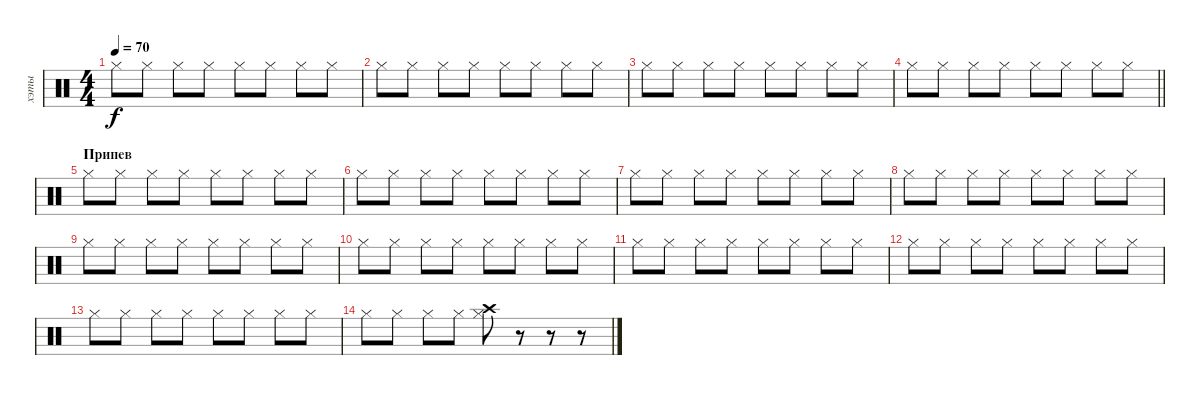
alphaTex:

\track ("хэты" "хэты") {instrument percussion}
\staff {score}
\articulation defaults
\ts (4 4)
\tempo 70
\clef neutral
\ks c "Hi-Hat (closed)".8{dy f} "Hi-Hat (closed)".8 "Hi-Hat (closed)".8 "Hi-Hat (closed)".8 "Hi-Hat (closed)".8 "Hi-Hat (closed)".8 "Hi-Hat (closed)".8 "Hi-Hat (closed)".8
|
"Hi-Hat (closed)".8 "Hi-Hat (closed)".8 "Hi-Hat (closed)".8 "Hi-Hat (closed)".8 "Hi-Hat (closed)".8 "Hi-Hat (closed)".8 "Hi-Hat (closed)".8 "Hi-Hat (closed)".8 |
"Hi-Hat (closed)".8 "Hi-Hat (closed)".8 "Hi-Hat (closed)".8 "Hi-Hat (closed)".8 "Hi-Hat (closed)".8 "Hi-Hat (closed)".8 "Hi-Hat (closed)".8 "Hi-Hat (closed)".8 |
\barLineRight lightlight "Hi-Hat (closed)".8 "Hi-Hat (closed)".8 "Hi-Hat (closed)".8 "Hi-Hat (closed)".8 "Hi-Hat (closed)".8 "Hi-Hat (closed)".8 "Hi-Hat (closed)".8 "Hi-Hat (closed)".8
|
\section ("" "Припев")
"Hi-Hat (closed)".8 "Hi-Hat (closed)".8 "Hi-Hat (closed)".8 "Hi-Hat (closed)".8 "Hi-Hat (closed)".8 "Hi-Hat (closed)".8 "Hi-Hat (closed)".8 "Hi-Hat (closed)".8 |
"Hi-Hat (closed)".8 "Hi-Hat (closed)".8 "Hi-Hat (closed)".8 "Hi-Hat (closed)".8 "Hi-Hat (closed)".8 "Hi-Hat (closed)".8 "Hi-Hat (closed)".8 "Hi-Hat (closed)".8 |
"Hi-Hat (closed)".8 "Hi-Hat (closed)".8 "Hi-Hat (closed)".8 "Hi-Hat (closed)".8 "Hi-Hat (closed)".8 "Hi-Hat (closed)".8 "Hi-Hat (closed)".8 "Hi-Hat (closed)".8 |
"Hi-Hat (closed)".8 "Hi-Hat (closed)".8 "Hi-Hat (closed)".8 "Hi-Hat (closed)".8 "Hi-Hat (closed)".8 "Hi-Hat (closed)".8 "Hi-Hat (closed)".8 "Hi-Hat (closed)".8 |
"Hi-Hat (closed)".8 "Hi-Hat (closed)".8 "Hi-Hat (closed)".8 "Hi-Hat (closed)".8 "Hi-Hat (closed)".8 "Hi-Hat (closed)".8 "Hi-Hat (closed)".8 "Hi-Hat (closed)".8 |
"Hi-Hat (closed)".8 "Hi-Hat (closed)".8 "Hi-Hat (closed)".8 "Hi-Hat (closed)".8 "Hi-Hat (closed)".8 "Hi-Hat (closed)".8 "Hi-Hat (closed)".8 "Hi-Hat (closed)".8 |
"Hi-Hat (closed)".8 "Hi-Hat (closed)".8 "Hi-Hat (closed)".8 "Hi-Hat (closed)".8 "Hi-Hat (closed)".8 "Hi-Hat (closed)".8 "Hi-Hat (closed)".8 "Hi-Hat (closed)".8 |
"Hi-Hat (closed)".8 "Hi-Hat (closed)".8 "Hi-Hat (closed)".8 "Hi-Hat (closed)".8 "Hi-Hat (closed)".8 "Hi-Hat (closed)".8 "Hi-Hat (closed)".8 "Hi-Hat (closed)".8 |
"Hi-Hat (closed)".8 "Hi-Hat (closed)".8 "Hi-Hat (closed)".8 "Hi-Hat (closed)".8 "Hi-Hat (closed)".8 "Hi-Hat (closed)".8 "Hi-Hat (closed)".8 "Hi-Hat (closed)".8 |
"Hi-Hat (closed)".8 "Hi-Hat (closed)".8 "Hi-Hat (closed)".8 "Hi-Hat (closed)".8 ("Crash high (hit)" "Hi-Hat (closed)").8 r.8 r.8 r.8
